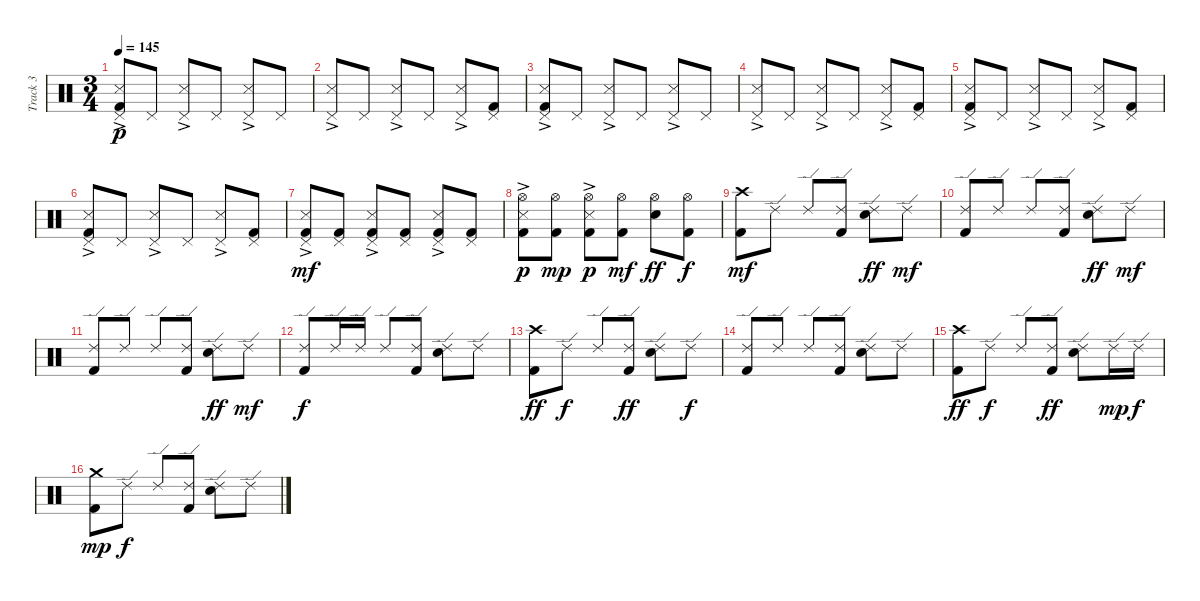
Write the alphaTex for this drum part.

\track ("Track 3" "Track 3") {instrument percussion}
\staff {score}
\articulation defaults
\ts (3 4)
\tempo 145
\clef neutral
\ks c
("Pedal Hi-Hat (hit)"{ac} "Snare (side stick) 3" "Kick (hit) 2").8{dy p} "Pedal Hi-Hat (hit)".8 ("Pedal Hi-Hat (hit)"{ac} "Snare (side stick) 3").8 "Pedal Hi-Hat (hit)".8 ("Pedal Hi-Hat (hit)"{ac} "Snare (side stick) 3").8 "Pedal Hi-Hat (hit)".8 |
("Pedal Hi-Hat (hit)"{ac} "Snare (side stick) 3").8 "Pedal Hi-Hat (hit)".8 ("Pedal Hi-Hat (hit)"{ac} "Snare (side stick) 3").8 "Pedal Hi-Hat (hit)".8 ("Pedal Hi-Hat (hit)"{ac} "Snare (side stick) 3").8 ("Pedal Hi-Hat (hit)" "Kick (hit) 2").8 |
("Pedal Hi-Hat (hit)"{ac} "Snare (side stick) 3" "Kick (hit) 2").8 "Pedal Hi-Hat (hit)".8 ("Pedal Hi-Hat (hit)"{ac} "Snare (side stick) 3").8 "Pedal Hi-Hat (hit)".8 ("Pedal Hi-Hat (hit)"{ac} "Snare (side stick) 3").8 "Pedal Hi-Hat (hit)".8 |
("Pedal Hi-Hat (hit)"{ac} "Snare (side stick) 3").8 "Pedal Hi-Hat (hit)".8 ("Pedal Hi-Hat (hit)"{ac} "Snare (side stick) 3").8 "Pedal Hi-Hat (hit)".8 ("Pedal Hi-Hat (hit)"{ac} "Snare (side stick) 3").8 ("Pedal Hi-Hat (hit)" "Kick (hit) 2").8 |
("Pedal Hi-Hat (hit)"{ac} "Snare (side stick) 3" "Kick (hit) 2").8 "Pedal Hi-Hat (hit)".8 ("Pedal Hi-Hat (hit)"{ac} "Snare (side stick) 3").8 "Pedal Hi-Hat (hit)".8 ("Pedal Hi-Hat (hit)"{ac} "Snare (side stick) 3").8 ("Pedal Hi-Hat (hit)" "Kick (hit) 2").8 |
("Pedal Hi-Hat (hit)"{ac} "Snare (side stick) 3" "Kick (hit) 2").8 "Pedal Hi-Hat (hit)".8 ("Pedal Hi-Hat (hit)"{ac} "Snare (side stick) 3").8 "Pedal Hi-Hat (hit)".8 ("Pedal Hi-Hat (hit)"{ac} "Snare (side stick) 3").8 ("Pedal Hi-Hat (hit)" "Kick (hit) 2").8 |
("Pedal Hi-Hat (hit)"{ac} "Snare (side stick) 3" "Kick (hit) 2").8{dy mf} ("Pedal Hi-Hat (hit)" "Kick (hit) 2").8 ("Pedal Hi-Hat (hit)"{ac} "Snare (side stick) 3" "Kick (hit) 2").8 ("Pedal Hi-Hat (hit)" "Kick (hit) 2").8 ("Pedal Hi-Hat (hit)"{ac} "Snare (side stick) 3" "Kick (hit) 2").8 ("Pedal Hi-Hat (hit)" "Kick (hit) 2").8 |
("Hi-Hat (open)"{ac} "Snare (side stick) 3" "Kick (hit) 2").8{dy p} ("Hi-Hat (open)" "Kick (hit) 2").8{dy mp} ("Hi-Hat (open)"{ac} "Snare (side stick) 3" "Kick (hit) 2").8{dy p} ("Hi-Hat (open)" "Kick (hit) 2").8{dy mf} ("Hi-Hat (open)" "Electric Snare (hit)").8{dy ff} ("Hi-Hat (open)" "Kick (hit) 2").8{dy f} |
("Kick (hit) 2" "Crash high (hit)").8{dy mf} "Ride (edge) 2".8 "Ride (edge) 2".8 ("Ride (edge) 2" "Kick (hit) 2").8 ("Ride (edge) 2" "Electric Snare (hit)").8{dy ff} "Ride (edge) 2".8{dy mf} |
("Ride (edge) 2" "Kick (hit) 2").8 "Ride (edge) 2".8 "Ride (edge) 2".8 ("Ride (edge) 2" "Kick (hit) 2").8 ("Ride (edge) 2" "Electric Snare (hit)").8{dy ff} "Ride (edge) 2".8{dy mf} |
("Ride (edge) 2" "Kick (hit) 2").8 "Ride (edge) 2".8 "Ride (edge) 2".8 ("Ride (edge) 2" "Kick (hit) 2").8 ("Ride (edge) 2" "Electric Snare (hit)").8{dy ff} "Ride (edge) 2".8{dy mf} |
("Ride (edge) 2" "Kick (hit) 2").8{dy f} "Ride (edge) 2".16 "Ride (edge) 2".16 "Ride (edge) 2".8 ("Ride (edge) 2" "Kick (hit) 2").8 ("Ride (edge) 2" "Electric Snare (hit)").8 "Ride (edge) 2".8 |
("Crash high (hit)" "Kick (hit) 2").8{dy ff} "Ride (edge) 2".8{dy f} "Ride (edge) 2".8 ("Ride (edge) 2" "Kick (hit) 2").8{dy ff} ("Ride (edge) 2" "Electric Snare (hit)").8 "Ride (edge) 2".8{dy f} |
("Ride (edge) 2" "Kick (hit) 2").8 "Ride (edge) 2".8 "Ride (edge) 2".8 ("Ride (edge) 2" "Kick (hit) 2").8 ("Ride (edge) 2" "Electric Snare (hit)").8 "Ride (edge) 2".8 |
("Crash high (hit)" "Kick (hit) 2").8{dy ff} "Ride (edge) 2".8{dy f} "Ride (edge) 2".8 ("Ride (edge) 2" "Kick (hit) 2").8{dy ff} ("Ride (edge) 2" "Electric Snare (hit)").8 "Ride (edge) 2".16{dy mp} "Ride (edge) 2".16{dy f} |
("Crash medium (hit)" "Kick (hit) 2").8{dy mp} "Ride (edge) 2".8{dy f} "Ride (edge) 2".8 ("Ride (edge) 2" "Kick (hit) 2").8 ("Ride (edge) 2" "Electric Snare (hit)").8 "Ride (edge) 2".8
